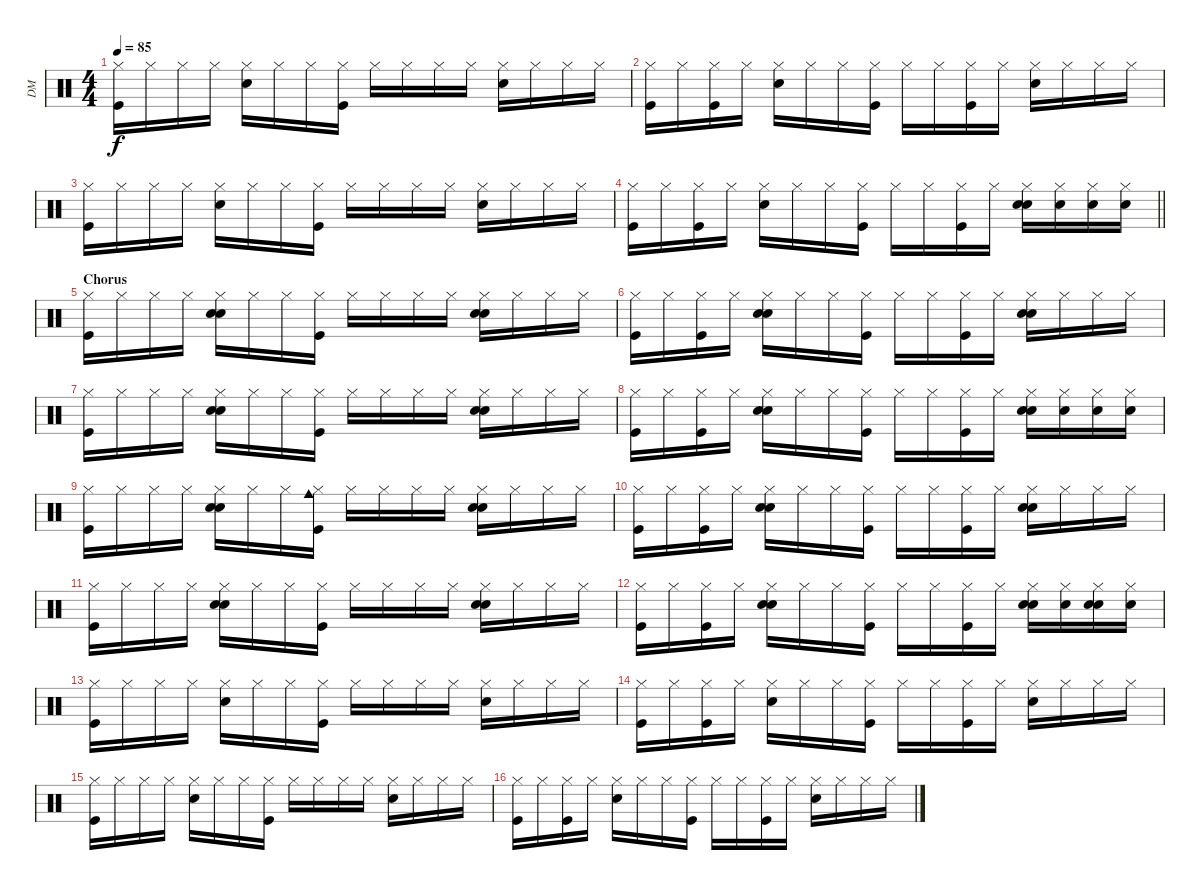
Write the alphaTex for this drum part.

\track ("DM" "DM") {instrument percussion}
\staff {score}
\articulation defaults
\ts (4 4)
\tempo 85
\clef neutral
\ks c
("Hi-Hat (closed)" "Kick (hit)").16{dy f} "Hi-Hat (closed)".16 "Hi-Hat (closed)".16 "Hi-Hat (closed)".16 ("Hi-Hat (closed)" "Electric Snare (hit)").16 "Hi-Hat (closed)".16 "Hi-Hat (closed)".16 ("Hi-Hat (closed)" "Kick (hit)").16 "Hi-Hat (closed)".16 "Hi-Hat (closed)".16 "Hi-Hat (closed)".16 "Hi-Hat (closed)".16 ("Hi-Hat (closed)" "Electric Snare (hit)").16 "Hi-Hat (closed)".16 "Hi-Hat (closed)".16 "Hi-Hat (closed)".16 |
("Hi-Hat (closed)" "Kick (hit)").16 "Hi-Hat (closed)".16 ("Hi-Hat (closed)" "Kick (hit)").16 "Hi-Hat (closed)".16 ("Hi-Hat (closed)" "Electric Snare (hit)").16 "Hi-Hat (closed)".16 "Hi-Hat (closed)".16 ("Hi-Hat (closed)" "Kick (hit)").16 "Hi-Hat (closed)".16 "Hi-Hat (closed)".16 ("Hi-Hat (closed)" "Kick (hit)").16 "Hi-Hat (closed)".16 ("Hi-Hat (closed)" "Electric Snare (hit)").16 "Hi-Hat (closed)".16 "Hi-Hat (closed)".16 "Hi-Hat (closed)".16 |
("Hi-Hat (closed)" "Kick (hit)").16 "Hi-Hat (closed)".16 "Hi-Hat (closed)".16 "Hi-Hat (closed)".16 ("Hi-Hat (closed)" "Electric Snare (hit)").16 "Hi-Hat (closed)".16 "Hi-Hat (closed)".16 ("Hi-Hat (closed)" "Kick (hit)").16 "Hi-Hat (closed)".16 "Hi-Hat (closed)".16 "Hi-Hat (closed)".16 "Hi-Hat (closed)".16 ("Hi-Hat (closed)" "Electric Snare (hit)").16 "Hi-Hat (closed)".16 "Hi-Hat (closed)".16 "Hi-Hat (closed)".16 |
\barLineRight lightlight
("Hi-Hat (closed)" "Kick (hit)").16 "Hi-Hat (closed)".16 ("Hi-Hat (closed)" "Kick (hit)").16 "Hi-Hat (closed)".16 ("Hi-Hat (closed)" "Electric Snare (hit)").16 "Hi-Hat (closed)".16 "Hi-Hat (closed)".16 ("Hi-Hat (closed)" "Kick (hit)").16 "Hi-Hat (closed)".16 "Hi-Hat (closed)".16 ("Hi-Hat (closed)" "Kick (hit)").16 "Hi-Hat (closed)".16 ("Hi-Hat (closed)" "Electric Snare (hit)" "Hand Clap (hit)").16 ("Hi-Hat (closed)" "Hand Clap (hit)").16 ("Hi-Hat (closed)" "Hand Clap (hit)").16 ("Hi-Hat (closed)" "Hand Clap (hit)").16 |
\section ("" "Chorus")
("Hi-Hat (closed)" "Kick (hit)").16 "Hi-Hat (closed)".16 "Hi-Hat (closed)".16 "Hi-Hat (closed)".16 ("Hi-Hat (closed)" "Electric Snare (hit)" "Hand Clap (hit)").16 "Hi-Hat (closed)".16 "Hi-Hat (closed)".16 ("Hi-Hat (closed)" "Kick (hit)").16 "Hi-Hat (closed)".16 "Hi-Hat (closed)".16 "Hi-Hat (closed)".16 "Hi-Hat (closed)".16 ("Hi-Hat (closed)" "Electric Snare (hit)" "Hand Clap (hit)").16 "Hi-Hat (closed)".16 "Hi-Hat (closed)".16 "Hi-Hat (closed)".16 |
("Hi-Hat (closed)" "Kick (hit)").16 "Hi-Hat (closed)".16 ("Hi-Hat (closed)" "Kick (hit)").16 "Hi-Hat (closed)".16 ("Hi-Hat (closed)" "Electric Snare (hit)" "Hand Clap (hit)").16 "Hi-Hat (closed)".16 "Hi-Hat (closed)".16 ("Hi-Hat (closed)" "Kick (hit)").16 "Hi-Hat (closed)".16 "Hi-Hat (closed)".16 ("Hi-Hat (closed)" "Kick (hit)").16 "Hi-Hat (closed)".16 ("Hi-Hat (closed)" "Hand Clap (hit)" "Hand Clap (hit)").16 "Hi-Hat (closed)".16 "Hi-Hat (closed)".16 "Hi-Hat (closed)".16 |
("Hi-Hat (closed)" "Kick (hit)").16 "Hi-Hat (closed)".16 "Hi-Hat (closed)".16 "Hi-Hat (closed)".16 ("Hi-Hat (closed)" "Electric Snare (hit)" "Hand Clap (hit)").16 "Hi-Hat (closed)".16 "Hi-Hat (closed)".16 ("Hi-Hat (closed)" "Kick (hit)").16 "Hi-Hat (closed)".16 "Hi-Hat (closed)".16 "Hi-Hat (closed)".16 "Hi-Hat (closed)".16 ("Hi-Hat (closed)" "Electric Snare (hit)" "Hand Clap (hit)").16 "Hi-Hat (closed)".16 "Hi-Hat (closed)".16 "Hi-Hat (closed)".16 |
("Hi-Hat (closed)" "Kick (hit)").16 "Hi-Hat (closed)".16 ("Hi-Hat (closed)" "Kick (hit)").16 "Hi-Hat (closed)".16 ("Hi-Hat (closed)" "Electric Snare (hit)" "Hand Clap (hit)").16 "Hi-Hat (closed)".16 "Hi-Hat (closed)".16 ("Hi-Hat (closed)" "Kick (hit)").16 "Hi-Hat (closed)".16 "Hi-Hat (closed)".16 ("Hi-Hat (closed)" "Kick (hit)").16 "Hi-Hat (closed)".16 ("Hi-Hat (closed)" "Electric Snare (hit)" "Hand Clap (hit)").16 ("Hi-Hat (closed)" "Hand Clap (hit)").16 ("Hi-Hat (closed)" "Hand Clap (hit)").16 ("Hi-Hat (closed)" "Hand Clap (hit)").16 |
("Hi-Hat (closed)" "Kick (hit)").16 "Hi-Hat (closed)".16 "Hi-Hat (closed)".16 "Hi-Hat (closed)".16 ("Hi-Hat (closed)" "Electric Snare (hit)" "Hand Clap (hit)").16 "Hi-Hat (closed)".16 "Hi-Hat (closed)".16 ("Hi-Hat (closed)" "Kick (hit)" "Cowbell medium (hit)").16 "Hi-Hat (closed)".16 "Hi-Hat (closed)".16 "Hi-Hat (closed)".16 "Hi-Hat (closed)".16 ("Hi-Hat (closed)" "Electric Snare (hit)" "Hand Clap (hit)").16 "Hi-Hat (closed)".16 "Hi-Hat (closed)".16 "Hi-Hat (closed)".16 |
("Hi-Hat (closed)" "Kick (hit)").16 "Hi-Hat (closed)".16 ("Hi-Hat (closed)" "Kick (hit)").16 "Hi-Hat (closed)".16 ("Hi-Hat (closed)" "Electric Snare (hit)" "Hand Clap (hit)").16 "Hi-Hat (closed)".16 "Hi-Hat (closed)".16 ("Hi-Hat (closed)" "Kick (hit)").16 "Hi-Hat (closed)".16 "Hi-Hat (closed)".16 ("Hi-Hat (closed)" "Kick (hit)").16 "Hi-Hat (closed)".16 ("Hi-Hat (closed)" "Electric Snare (hit)" "Hand Clap (hit)").16 "Hi-Hat (closed)".16 "Hi-Hat (closed)".16 "Hi-Hat (closed)".16 |
("Hi-Hat (closed)" "Kick (hit)").16 "Hi-Hat (closed)".16 "Hi-Hat (closed)".16 "Hi-Hat (closed)".16 ("Hi-Hat (closed)" "Electric Snare (hit)" "Hand Clap (hit)").16 "Hi-Hat (closed)".16 "Hi-Hat (closed)".16 ("Hi-Hat (closed)" "Kick (hit)").16 "Hi-Hat (closed)".16 "Hi-Hat (closed)".16 "Hi-Hat (closed)".16 "Hi-Hat (closed)".16 ("Hi-Hat (closed)" "Electric Snare (hit)" "Hand Clap (hit)").16 "Hi-Hat (closed)".16 "Hi-Hat (closed)".16 "Hi-Hat (closed)".16 |
("Hi-Hat (closed)" "Kick (hit)").16 "Hi-Hat (closed)".16 ("Hi-Hat (closed)" "Kick (hit)").16 "Hi-Hat (closed)".16 ("Hi-Hat (closed)" "Electric Snare (hit)" "Hand Clap (hit)").16 "Hi-Hat (closed)".16 "Hi-Hat (closed)".16 ("Hi-Hat (closed)" "Kick (hit)").16 "Hi-Hat (closed)".16 "Hi-Hat (closed)".16 ("Hi-Hat (closed)" "Kick (hit)").16 "Hi-Hat (closed)".16 ("Hi-Hat (closed)" "Electric Snare (hit)" "Hand Clap (hit)").16 ("Hi-Hat (closed)" "Hand Clap (hit)").16 ("Hi-Hat (closed)" "Hand Clap (hit)" "Hand Clap (hit)").16 ("Hi-Hat (closed)" "Hand Clap (hit)").16 |
("Hi-Hat (closed)" "Kick (hit)").16 "Hi-Hat (closed)".16 "Hi-Hat (closed)".16 "Hi-Hat (closed)".16 ("Hi-Hat (closed)" "Electric Snare (hit)").16 "Hi-Hat (closed)".16 "Hi-Hat (closed)".16 ("Hi-Hat (closed)" "Kick (hit)").16 "Hi-Hat (closed)".16 "Hi-Hat (closed)".16 "Hi-Hat (closed)".16 "Hi-Hat (closed)".16 ("Hi-Hat (closed)" "Electric Snare (hit)").16 "Hi-Hat (closed)".16 "Hi-Hat (closed)".16 "Hi-Hat (closed)".16 |
("Hi-Hat (closed)" "Kick (hit)").16 "Hi-Hat (closed)".16 ("Hi-Hat (closed)" "Kick (hit)").16 "Hi-Hat (closed)".16 ("Hi-Hat (closed)" "Electric Snare (hit)").16 "Hi-Hat (closed)".16 "Hi-Hat (closed)".16 ("Hi-Hat (closed)" "Kick (hit)").16 "Hi-Hat (closed)".16 "Hi-Hat (closed)".16 ("Hi-Hat (closed)" "Kick (hit)").16 "Hi-Hat (closed)".16 ("Hi-Hat (closed)" "Electric Snare (hit)").16 "Hi-Hat (closed)".16 "Hi-Hat (closed)".16 "Hi-Hat (closed)".16 |
("Hi-Hat (closed)" "Kick (hit)").16 "Hi-Hat (closed)".16 "Hi-Hat (closed)".16 "Hi-Hat (closed)".16 ("Hi-Hat (closed)" "Electric Snare (hit)").16 "Hi-Hat (closed)".16 "Hi-Hat (closed)".16 ("Hi-Hat (closed)" "Kick (hit)").16 "Hi-Hat (closed)".16 "Hi-Hat (closed)".16 "Hi-Hat (closed)".16 "Hi-Hat (closed)".16 ("Hi-Hat (closed)" "Electric Snare (hit)").16 "Hi-Hat (closed)".16 "Hi-Hat (closed)".16 "Hi-Hat (closed)".16 |
("Hi-Hat (closed)" "Kick (hit)").16 "Hi-Hat (closed)".16 ("Hi-Hat (closed)" "Kick (hit)").16 "Hi-Hat (closed)".16 ("Hi-Hat (closed)" "Electric Snare (hit)").16 "Hi-Hat (closed)".16 "Hi-Hat (closed)".16 ("Hi-Hat (closed)" "Kick (hit)").16 "Hi-Hat (closed)".16 "Hi-Hat (closed)".16 ("Hi-Hat (closed)" "Kick (hit)").16 "Hi-Hat (closed)".16 ("Hi-Hat (closed)" "Electric Snare (hit)").16 "Hi-Hat (closed)".16 "Hi-Hat (closed)".16 "Hi-Hat (closed)".16
